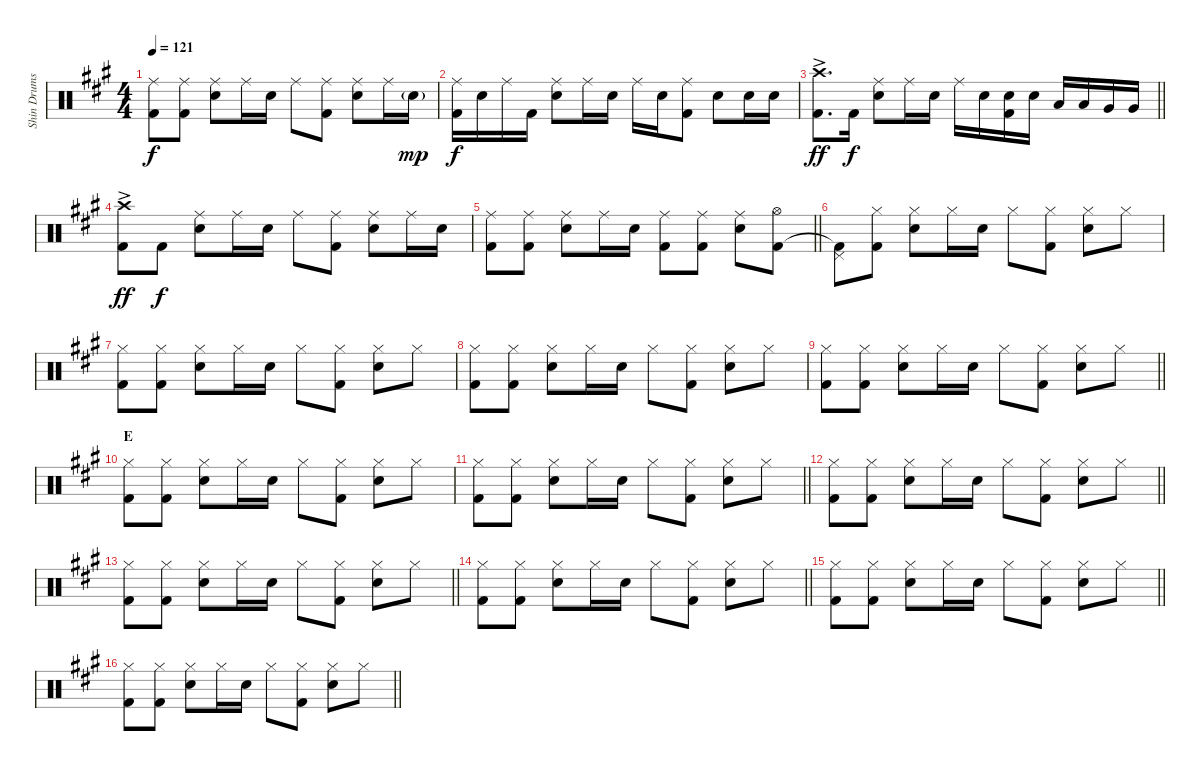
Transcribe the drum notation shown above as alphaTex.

\track ("Shin Drums" "Shin Drums") {instrument percussion}
\staff {score}
\articulation defaults
\ts (4 4)
\tempo 121
\clef neutral
\ks a
("Ride (middle)" "Kick (hit) 2").8{dy f} ("Ride (middle)" "Kick (hit) 2").8 ("Ride (middle)" "Snare (hit) 2").8 "Ride (middle)".16 "Snare (hit) 2".16 "Ride (middle)".8 ("Ride (middle)" "Kick (hit) 2").8 ("Ride (middle)" "Snare (hit) 2").8 "Ride (middle)".16 "Snare (hit) 2"{g}.16{dy mp} |
("Ride (middle)" "Kick (hit) 2").16{dy f} "Snare (hit) 2".16 "Ride (middle)".16 "Kick (hit) 2".16 ("Ride (middle)" "Snare (hit) 2").8 "Ride (middle)".16 "Snare (hit) 2".16 "Ride (middle)".16 "Snare (hit) 2".16 ("Ride (middle)" "Kick (hit) 2").8 "Snare (hit) 2".8 "Snare (hit) 2".16 "Snare (hit) 2".16 |
\barLineRight lightlight
("Crash high (hit)"{ac} "Kick (hit) 2"{ac}).8{d dy ff} "Kick (hit) 2".16{dy f} ("Ride (middle)" "Snare (hit) 2").8 "Ride (middle)".16 "Snare (hit) 2".16 "Ride (middle)".16 "Snare (hit) 2".16 ("Snare (hit) 2" "Kick (hit) 2").16 "Snare (hit) 2".16 "Low Tom (hit)".16 "Low Tom (hit)".16 "Very Low Tom (hit)".16 "Very Low Tom (hit)".16 |
("Crash high (hit)"{ac} "Kick (hit) 2"{ac}).8{dy ff} "Kick (hit) 2".8{dy f} ("Ride (middle)" "Snare (hit) 2").8 "Ride (middle)".16 "Snare (hit) 2".16 "Ride (middle)".8 ("Ride (middle)" "Kick (hit) 2").8 ("Ride (middle)" "Snare (hit) 2").8 "Ride (middle)".16 "Snare (hit) 2".16 |
\barLineRight lightlight
("Ride (middle)" "Kick (hit) 2").8 ("Ride (middle)" "Kick (hit) 2").8 ("Ride (middle)" "Snare (hit) 2").8 "Ride (middle)".16 "Snare (hit) 2".16 ("Ride (middle)" "Kick (hit) 2").8 ("Ride (middle)" "Kick (hit) 2").8 ("Ride (middle)" "Snare (hit) 2").8 ("Hi-Hat (open)" "Kick (hit) 2").8 |
\section ("" "")
("Pedal Hi-Hat (hit)" "Kick (hit) 2"{t}).8 ("Hi-Hat (closed)" "Kick (hit) 2").8 ("Hi-Hat (closed)" "Snare (hit) 2").8 "Hi-Hat (closed)".16 "Snare (hit) 2".16 "Hi-Hat (closed)".8 ("Hi-Hat (closed)" "Kick (hit) 2").8 ("Hi-Hat (closed)" "Snare (hit) 2").8 "Hi-Hat (closed)".8 |
("Hi-Hat (closed)" "Kick (hit) 2").8 ("Hi-Hat (closed)" "Kick (hit) 2").8 ("Hi-Hat (closed)" "Snare (hit) 2").8 "Hi-Hat (closed)".16 "Snare (hit) 2".16 "Hi-Hat (closed)".8 ("Hi-Hat (closed)" "Kick (hit) 2").8 ("Hi-Hat (closed)" "Snare (hit) 2").8 "Hi-Hat (closed)".8 |
("Hi-Hat (closed)" "Kick (hit) 2").8 ("Hi-Hat (closed)" "Kick (hit) 2").8 ("Hi-Hat (closed)" "Snare (hit) 2").8 "Hi-Hat (closed)".16 "Snare (hit) 2".16 "Hi-Hat (closed)".8 ("Hi-Hat (closed)" "Kick (hit) 2").8 ("Hi-Hat (closed)" "Snare (hit) 2").8 "Hi-Hat (closed)".8 |
\barLineRight lightlight
("Hi-Hat (closed)" "Kick (hit) 2").8 ("Hi-Hat (closed)" "Kick (hit) 2").8 ("Hi-Hat (closed)" "Snare (hit) 2").8 "Hi-Hat (closed)".16 "Snare (hit) 2".16 "Hi-Hat (closed)".8 ("Hi-Hat (closed)" "Kick (hit) 2").8 ("Hi-Hat (closed)" "Snare (hit) 2").8 "Hi-Hat (closed)".8 |
\section ("" "E")
("Hi-Hat (closed)" "Kick (hit) 2").8 ("Hi-Hat (closed)" "Kick (hit) 2").8 ("Hi-Hat (closed)" "Snare (hit) 2").8 "Hi-Hat (closed)".16 "Snare (hit) 2".16 "Hi-Hat (closed)".8 ("Hi-Hat (closed)" "Kick (hit) 2").8 ("Hi-Hat (closed)" "Snare (hit) 2").8 "Hi-Hat (closed)".8 |
\barLineRight lightlight
("Hi-Hat (closed)" "Kick (hit) 2").8 ("Hi-Hat (closed)" "Kick (hit) 2").8 ("Hi-Hat (closed)" "Snare (hit) 2").8 "Hi-Hat (closed)".16 "Snare (hit) 2".16 "Hi-Hat (closed)".8 ("Hi-Hat (closed)" "Kick (hit) 2").8 ("Hi-Hat (closed)" "Snare (hit) 2").8 "Hi-Hat (closed)".8 |
\section ("" "")
\barLineRight lightlight
("Hi-Hat (closed)" "Kick (hit) 2").8 ("Hi-Hat (closed)" "Kick (hit) 2").8 ("Hi-Hat (closed)" "Snare (hit) 2").8 "Hi-Hat (closed)".16 "Snare (hit) 2".16 "Hi-Hat (closed)".8 ("Hi-Hat (closed)" "Kick (hit) 2").8 ("Hi-Hat (closed)" "Snare (hit) 2").8 "Hi-Hat (closed)".8 |
\barLineRight lightlight
("Hi-Hat (closed)" "Kick (hit) 2").8 ("Hi-Hat (closed)" "Kick (hit) 2").8 ("Hi-Hat (closed)" "Snare (hit) 2").8 "Hi-Hat (closed)".16 "Snare (hit) 2".16 "Hi-Hat (closed)".8 ("Hi-Hat (closed)" "Kick (hit) 2").8 ("Hi-Hat (closed)" "Snare (hit) 2").8 "Hi-Hat (closed)".8 |
\barLineRight lightlight
("Hi-Hat (closed)" "Kick (hit) 2").8 ("Hi-Hat (closed)" "Kick (hit) 2").8 ("Hi-Hat (closed)" "Snare (hit) 2").8 "Hi-Hat (closed)".16 "Snare (hit) 2".16 "Hi-Hat (closed)".8 ("Hi-Hat (closed)" "Kick (hit) 2").8 ("Hi-Hat (closed)" "Snare (hit) 2").8 "Hi-Hat (closed)".8 |
\barLineRight lightlight
("Hi-Hat (closed)" "Kick (hit) 2").8 ("Hi-Hat (closed)" "Kick (hit) 2").8 ("Hi-Hat (closed)" "Snare (hit) 2").8 "Hi-Hat (closed)".16 "Snare (hit) 2".16 "Hi-Hat (closed)".8 ("Hi-Hat (closed)" "Kick (hit) 2").8 ("Hi-Hat (closed)" "Snare (hit) 2").8 "Hi-Hat (closed)".8 |
\barLineRight lightlight
("Hi-Hat (closed)" "Kick (hit) 2").8 ("Hi-Hat (closed)" "Kick (hit) 2").8 ("Hi-Hat (closed)" "Snare (hit) 2").8 "Hi-Hat (closed)".16 "Snare (hit) 2".16 "Hi-Hat (closed)".8 ("Hi-Hat (closed)" "Kick (hit) 2").8 ("Hi-Hat (closed)" "Snare (hit) 2").8 "Hi-Hat (closed)".8
